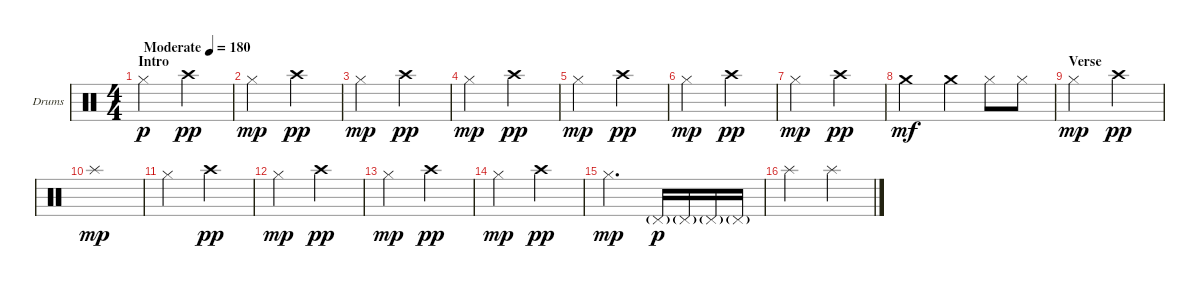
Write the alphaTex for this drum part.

\bracketExtendMode groupsimilarinstruments
\firstSystemTrackNameOrientation horizontal
\otherSystemsTrackNameOrientation horizontal
\track ("Drumkit" "Drums") {instrument percussion}
\staff {score}
\articulation defaults
\ts (4 4)
\beaming (8 2 2 2 2)
\section ("" "Intro")
\tempo (180 "Moderate")
\clef neutral
\scale
0.474178
\ks c "Hi-Hat (closed)".2{dy p} "Crash high (hit)".2{dy pp}
|
\scale
0.262911 "Hi-Hat (closed)".2{dy mp} "Crash high (hit)".2{dy pp} |
\scale
0.262911 "Hi-Hat (closed)".2{dy mp} "Crash high (hit)".2{dy pp} |
\scale
0.333333 "Hi-Hat (closed)".2{dy mp} "Crash high (hit)".2{dy pp} |
\scale
0.333333 "Hi-Hat (closed)".2{dy mp} "Crash high (hit)".2{dy pp} |
\scale
0.333333 "Hi-Hat (closed)".2{dy mp} "Crash high (hit)".2{dy pp} |
\scale
0.333333 "Hi-Hat (closed)".2{dy mp} "Crash high (hit)".2{dy pp} |
\scale
0.333333 "Crash medium (hit)".2{dy mf} "Crash medium (hit)".4 "Hi-Hat (closed)".8 "Hi-Hat (closed)".8 |
\section ("" "Verse")
\scale
0.333333 "Hi-Hat (closed)".2{dy mp} "Crash high (hit)".2{dy pp} |
\scale
0.333333 "Splash (hit)".1{dy mp} |
\scale
0.333333 "Hi-Hat (closed)".2 "Crash high (hit)".2{dy pp} |
\scale
0.333333 "Hi-Hat (closed)".2{dy mp} "Crash high (hit)".2{dy pp} |
\scale
0.333333 "Hi-Hat (closed)".2{dy mp} "Crash high (hit)".2{dy pp} |
\scale
0.333333 "Hi-Hat (closed)".2{dy mp} "Crash high (hit)".2{dy pp} |
\scale
0.333333 "Hi-Hat (closed)".2{d dy mp} "Pedal Hi-Hat (hit)"{g}.16{dy p} "Pedal Hi-Hat (hit)"{g}.16 "Pedal Hi-Hat (hit)"{g}.16 "Pedal Hi-Hat (hit)"{g}.16 |
\scale
0.333333 "Splash (hit)".2 "Splash (hit)".2
